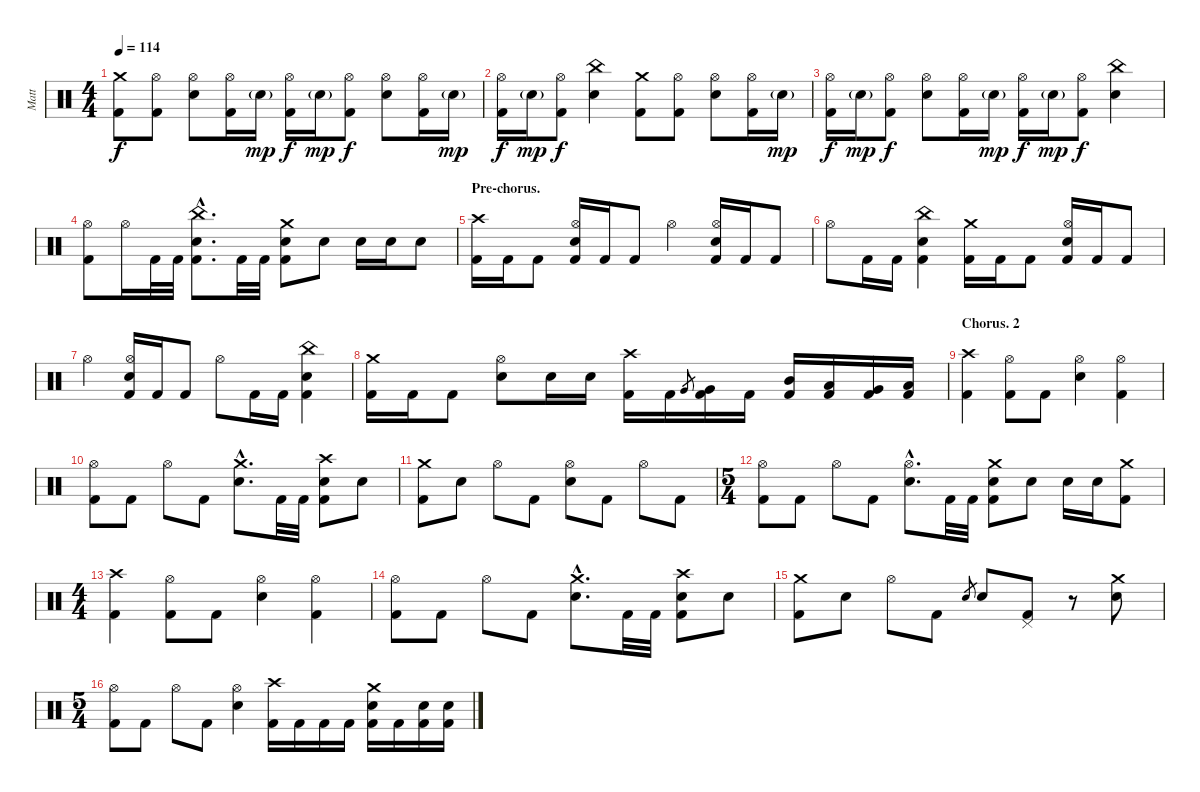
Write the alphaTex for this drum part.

\track ("Matt" "Matt") {instrument percussion}
\staff {score}
\articulation defaults
\ts (4 4)
\tempo 114
\clef neutral
\ks c
("Crash medium (hit)" "Kick (hit) 2").8{dy f} ("Hi-Hat (open)" "Kick (hit) 2").8 ("Hi-Hat (open)" "Electric Snare (hit)").8 ("Hi-Hat (open)" "Kick (hit) 2").16 "Electric Snare (hit)"{g}.16{dy mp} ("Hi-Hat (open)" "Kick (hit) 2").16{dy f} "Electric Snare (hit)"{g}.16{dy mp} ("Hi-Hat (open)" "Kick (hit) 2").8{dy f} ("Hi-Hat (open)" "Electric Snare (hit)").8 ("Hi-Hat (open)" "Kick (hit) 2").16 "Electric Snare (hit)"{g}.16{dy mp} |
("Hi-Hat (open)" "Kick (hit) 2").16{dy f} "Electric Snare (hit)"{g}.16{dy mp} ("Hi-Hat (open)" "Kick (hit) 2").8{dy f} ("China (hit)" "Electric Snare (hit)").4 ("Crash medium (hit)" "Kick (hit) 2").8 ("Hi-Hat (open)" "Kick (hit) 2").8 ("Hi-Hat (open)" "Electric Snare (hit)").8 ("Hi-Hat (open)" "Kick (hit) 2").16 "Electric Snare (hit)"{g}.16{dy mp} |
("Hi-Hat (open)" "Kick (hit) 2").16{dy f} "Electric Snare (hit)"{g}.16{dy mp} ("Hi-Hat (open)" "Kick (hit) 2").8{dy f} ("Hi-Hat (open)" "Electric Snare (hit)").8 ("Hi-Hat (open)" "Kick (hit) 2").16 "Electric Snare (hit)"{g}.16{dy mp} ("Hi-Hat (open)" "Kick (hit) 2").16{dy f} "Electric Snare (hit)"{g}.16{dy mp} ("Hi-Hat (open)" "Kick (hit) 2").8{dy f} ("China (hit)" "Electric Snare (hit)").4 |
("Hi-Hat (open)" "Kick (hit) 2").8 "Hi-Hat (open)".16 "Kick (hit) 2".32 "Kick (hit) 2".32 ("China (hit)"{hac} "Electric Snare (hit)"{hac} "Kick (hit) 2"{hac}).8{d} "Kick (hit) 2".32 "Kick (hit) 2".32 ("Crash medium (hit)" "Electric Snare (hit)" "Kick (hit) 2").8 "Electric Snare (hit)".8 "Electric Snare (hit)".16 "Electric Snare (hit)".16 "Electric Snare (hit)".8 |
\section ("" "Pre-chorus.")
("Crash high (hit)" "Kick (hit) 2").16 "Kick (hit) 2".16 "Kick (hit) 2".8 ("Hi-Hat (open)" "Electric Snare (hit)" "Kick (hit) 2").16 "Kick (hit) 2".16 "Kick (hit) 2".8 "Hi-Hat (open)".4 ("Hi-Hat (open)" "Electric Snare (hit)" "Kick (hit) 2").16 "Kick (hit) 2".16 "Kick (hit) 2".8 |
"Hi-Hat (open)".8 "Kick (hit) 2".16 "Kick (hit) 2".16 ("China (hit)" "Electric Snare (hit)" "Kick (hit) 2").4 ("Crash medium (hit)" "Kick (hit) 2").16 "Kick (hit) 2".16 "Kick (hit) 2".8 ("Hi-Hat (open)" "Electric Snare (hit)" "Kick (hit) 2").16 "Kick (hit) 2".16 "Kick (hit) 2".8 |
"Hi-Hat (open)".4 ("Hi-Hat (open)" "Electric Snare (hit)" "Kick (hit) 2").16 "Kick (hit) 2".16 "Kick (hit) 2".8 "Hi-Hat (open)".8 "Kick (hit) 2".16 "Kick (hit) 2".16 ("China (hit)" "Electric Snare (hit)" "Kick (hit) 2").4 |
("Crash medium (hit)" "Kick (hit) 2").16 "Kick (hit) 2".16 "Kick (hit) 2".8 ("Hi-Hat (open)" "Electric Snare (hit)").8 "Electric Snare (hit)".16 "Electric Snare (hit)".16 ("Crash high (hit)" "Kick (hit) 2").16 "Kick (hit) 2".16 "Very Low Tom (hit)".8{gr} ("Very Low Tom (hit)" "Kick (hit) 2").16 "Kick (hit) 2".16 ("Mid Tom (hit)" "Kick (hit) 2").16 ("Low Tom (hit)" "Kick (hit) 2").16 ("Very Low Tom (hit)" "Kick (hit) 2").16 ("Low Floor Tom (hit)" "Kick (hit) 2").16 |
\section ("" "Chorus. 2")
("Crash high (hit)" "Kick (hit) 2").4 ("Hi-Hat (open)" "Kick (hit) 2").8 "Kick (hit) 2".8 ("Hi-Hat (open)" "Electric Snare (hit)").4 ("Hi-Hat (open)" "Kick (hit) 2").4 |
("Hi-Hat (open)" "Kick (hit) 2").8 "Kick (hit) 2".8 "Hi-Hat (open)".8 "Kick (hit) 2".8 ("Crash medium (hit)"{hac} "Electric Snare (hit)"{hac}).8{d} "Kick (hit) 2".32 "Kick (hit) 2".32 ("Crash high (hit)" "Electric Snare (hit)" "Kick (hit) 2").8 "Electric Snare (hit)".8 |
("Crash medium (hit)" "Kick (hit) 2").8 "Electric Snare (hit)".8 "Hi-Hat (open)".8 "Kick (hit) 2".8 ("Hi-Hat (open)" "Electric Snare (hit)").8 "Kick (hit) 2".8 "Hi-Hat (open)".8 "Kick (hit) 2".8 |
\ts (5 4)
("Hi-Hat (open)" "Kick (hit) 2").8 "Kick (hit) 2".8 "Hi-Hat (open)".8 "Kick (hit) 2".8 ("Hi-Hat (open)"{hac} "Electric Snare (hit)"{hac}).8{d} "Kick (hit) 2".32 "Kick (hit) 2".32 ("Crash medium (hit)" "Electric Snare (hit)" "Kick (hit) 2").8 "Electric Snare (hit)".8 "Electric Snare (hit)".16 "Electric Snare (hit)".16 ("Crash medium (hit)" "Kick (hit) 2").8 |
\ts (4 4)
("Crash high (hit)" "Kick (hit) 2").4 ("Hi-Hat (open)" "Kick (hit) 2").8 "Kick (hit) 2".8 ("Hi-Hat (open)" "Electric Snare (hit)").4 ("Hi-Hat (open)" "Kick (hit) 2").4 |
("Hi-Hat (open)" "Kick (hit) 2").8 "Kick (hit) 2".8 "Hi-Hat (open)".8 "Kick (hit) 2".8 ("Crash medium (hit)"{hac} "Electric Snare (hit)"{hac}).8{d} "Kick (hit) 2".32 "Kick (hit) 2".32 ("Crash high (hit)" "Electric Snare (hit)" "Kick (hit) 2").8 "Electric Snare (hit)".8 |
("Crash medium (hit)" "Kick (hit) 2").8 "Electric Snare (hit)".8 "Hi-Hat (open)".8 "Kick (hit) 2".8 "Electric Snare (hit)".8{gr} "Electric Snare (hit)".8 ("Pedal Hi-Hat (hit)" "Kick (hit) 2").8 r.8 ("Crash medium (hit)" "Electric Snare (hit)").8 |
\ts (5 4)
("Hi-Hat (open)" "Kick (hit) 2").8 "Kick (hit) 2".8 "Hi-Hat (open)".8 "Kick (hit) 2".8 ("Hi-Hat (open)" "Electric Snare (hit)").4 ("Crash high (hit)" "Kick (hit) 2").16 "Kick (hit) 2".16 "Kick (hit) 2".16 "Kick (hit) 2".16 ("Crash medium (hit)" "Electric Snare (hit)" "Kick (hit) 2").16 "Kick (hit) 2".16 ("Electric Snare (hit)" "Kick (hit) 2").16 ("Electric Snare (hit)" "Kick (hit) 2").16
